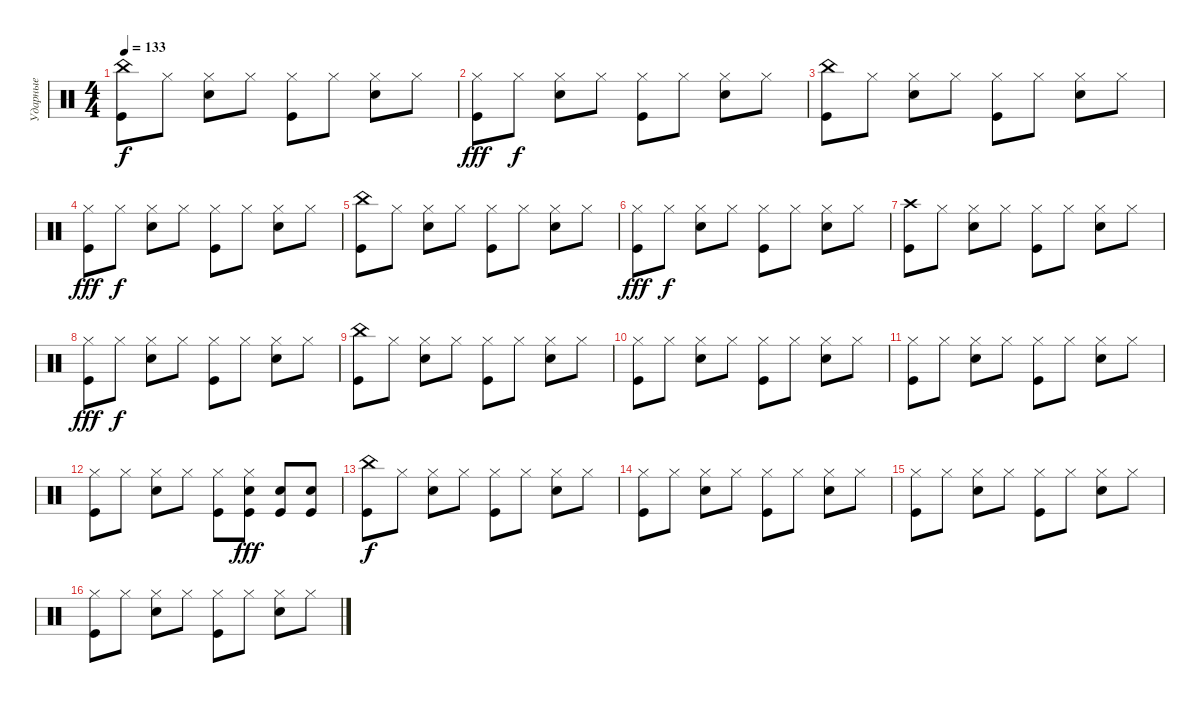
\track ("Ударные" "Ударные") {instrument percussion}
\staff {score}
\articulation defaults
\ts (4 4)
\tempo 133
\clef neutral
\ks c
("China (hit)" "Kick (hit)").8{dy f} "Hi-Hat (closed)".8 ("Hi-Hat (closed)" "Electric Snare (hit)").8 "Hi-Hat (closed)".8 ("Hi-Hat (closed)" "Kick (hit)").8 "Hi-Hat (closed)".8 ("Hi-Hat (closed)" "Electric Snare (hit)").8 "Hi-Hat (closed)".8 |
("Hi-Hat (closed)" "Kick (hit)").8{dy fff} "Hi-Hat (closed)".8{dy f} ("Hi-Hat (closed)" "Electric Snare (hit)").8 "Hi-Hat (closed)".8 ("Hi-Hat (closed)" "Kick (hit)").8 "Hi-Hat (closed)".8 ("Hi-Hat (closed)" "Electric Snare (hit)").8 "Hi-Hat (closed)".8 |
("China (hit)" "Kick (hit)").8 "Hi-Hat (closed)".8 ("Hi-Hat (closed)" "Electric Snare (hit)").8 "Hi-Hat (closed)".8 ("Hi-Hat (closed)" "Kick (hit)").8 "Hi-Hat (closed)".8 ("Hi-Hat (closed)" "Electric Snare (hit)").8 "Hi-Hat (closed)".8 |
("Hi-Hat (closed)" "Kick (hit)").8{dy fff} "Hi-Hat (closed)".8{dy f} ("Hi-Hat (closed)" "Electric Snare (hit)").8 "Hi-Hat (closed)".8 ("Hi-Hat (closed)" "Kick (hit)").8 "Hi-Hat (closed)".8 ("Hi-Hat (closed)" "Electric Snare (hit)").8 "Hi-Hat (closed)".8 |
("China (hit)" "Kick (hit)").8 "Hi-Hat (closed)".8 ("Hi-Hat (closed)" "Electric Snare (hit)").8 "Hi-Hat (closed)".8 ("Hi-Hat (closed)" "Kick (hit)").8 "Hi-Hat (closed)".8 ("Hi-Hat (closed)" "Electric Snare (hit)").8 "Hi-Hat (closed)".8 |
("Hi-Hat (closed)" "Kick (hit)").8{dy fff} "Hi-Hat (closed)".8{dy f} ("Hi-Hat (closed)" "Electric Snare (hit)").8 "Hi-Hat (closed)".8 ("Hi-Hat (closed)" "Kick (hit)").8 "Hi-Hat (closed)".8 ("Hi-Hat (closed)" "Electric Snare (hit)").8 "Hi-Hat (closed)".8 |
("Crash high (hit)" "Kick (hit)").8 "Hi-Hat (closed)".8 ("Hi-Hat (closed)" "Electric Snare (hit)").8 "Hi-Hat (closed)".8 ("Hi-Hat (closed)" "Kick (hit)").8 "Hi-Hat (closed)".8 ("Hi-Hat (closed)" "Electric Snare (hit)").8 "Hi-Hat (closed)".8 |
("Hi-Hat (closed)" "Kick (hit)").8{dy fff} "Hi-Hat (closed)".8{dy f} ("Hi-Hat (closed)" "Electric Snare (hit)").8 "Hi-Hat (closed)".8 ("Hi-Hat (closed)" "Kick (hit)").8 "Hi-Hat (closed)".8 ("Hi-Hat (closed)" "Electric Snare (hit)").8 "Hi-Hat (closed)".8 |
("China (hit)" "Kick (hit)").8 "Hi-Hat (closed)".8 ("Hi-Hat (closed)" "Electric Snare (hit)").8 "Hi-Hat (closed)".8 ("Hi-Hat (closed)" "Kick (hit)").8 "Hi-Hat (closed)".8 ("Hi-Hat (closed)" "Electric Snare (hit)").8 "Hi-Hat (closed)".8 |
("Hi-Hat (closed)" "Kick (hit)").8 "Hi-Hat (closed)".8 ("Hi-Hat (closed)" "Electric Snare (hit)").8 "Hi-Hat (closed)".8 ("Hi-Hat (closed)" "Kick (hit)").8 "Hi-Hat (closed)".8 ("Hi-Hat (closed)" "Electric Snare (hit)").8 "Hi-Hat (closed)".8 |
("Hi-Hat (closed)" "Kick (hit)").8 "Hi-Hat (closed)".8 ("Hi-Hat (closed)" "Electric Snare (hit)").8 "Hi-Hat (closed)".8 ("Hi-Hat (closed)" "Kick (hit)").8 "Hi-Hat (closed)".8 ("Hi-Hat (closed)" "Electric Snare (hit)").8 "Hi-Hat (closed)".8 |
("Hi-Hat (closed)" "Kick (hit)").8 "Hi-Hat (closed)".8 ("Hi-Hat (closed)" "Electric Snare (hit)").8 "Hi-Hat (closed)".8 ("Hi-Hat (closed)" "Kick (hit)").8 ("Electric Snare (hit)" "Hi-Hat (closed)" "Kick (hit)").8{dy fff} ("Electric Snare (hit)" "Kick (hit)").8 ("Electric Snare (hit)" "Kick (hit)").8 |
("China (hit)" "Kick (hit)").8{dy f} "Hi-Hat (closed)".8 ("Hi-Hat (closed)" "Electric Snare (hit)").8 "Hi-Hat (closed)".8 ("Hi-Hat (closed)" "Kick (hit)").8 "Hi-Hat (closed)".8 ("Hi-Hat (closed)" "Electric Snare (hit)").8 "Hi-Hat (closed)".8 |
("Hi-Hat (closed)" "Kick (hit)").8 "Hi-Hat (closed)".8 ("Hi-Hat (closed)" "Electric Snare (hit)").8 "Hi-Hat (closed)".8 ("Hi-Hat (closed)" "Kick (hit)").8 "Hi-Hat (closed)".8 ("Hi-Hat (closed)" "Electric Snare (hit)").8 "Hi-Hat (closed)".8 |
("Hi-Hat (closed)" "Kick (hit)").8 "Hi-Hat (closed)".8 ("Hi-Hat (closed)" "Electric Snare (hit)").8 "Hi-Hat (closed)".8 ("Hi-Hat (closed)" "Kick (hit)").8 "Hi-Hat (closed)".8 ("Hi-Hat (closed)" "Electric Snare (hit)").8 "Hi-Hat (closed)".8 |
("Hi-Hat (closed)" "Kick (hit)").8 "Hi-Hat (closed)".8 ("Hi-Hat (closed)" "Electric Snare (hit)").8 "Hi-Hat (closed)".8 ("Hi-Hat (closed)" "Kick (hit)").8 "Hi-Hat (closed)".8 ("Hi-Hat (closed)" "Electric Snare (hit)").8 "Hi-Hat (closed)".8
